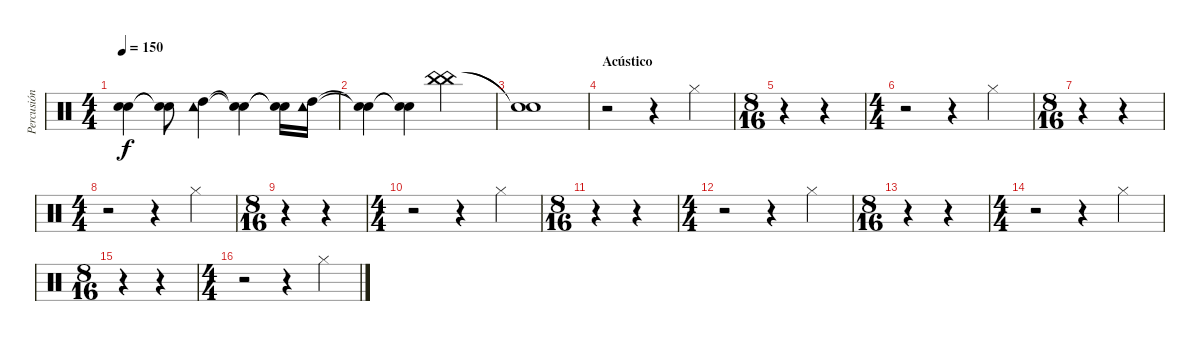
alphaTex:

\track ("Percusión" "Percusión") {instrument percussion}
\staff {score}
\articulation defaults
\ts (4 4)
\tempo 150
\clef neutral
\ks c
("Snare (hit)"{t} "Snare (hit)"{t}).4{dy f} ("Snare (hit)"{t} "Snare (hit)"{t}).8 ("High Tom (hit)" "Tambourine (hit)").4 ("Snare (hit)"{t} "Snare (hit)"{t}).4 ("Snare (hit)"{t} "Snare (hit)"{t}).16 ("High Tom (hit)" "Tambourine (hit)").16 |
("Snare (hit)"{t} "Snare (hit)"{t}).4 ("Snare (hit)"{t} "Snare (hit)"{t}).4 ("China (hit)" "China (hit)").2 |
("Snare (hit)"{t} "Snare (hit)"{t}).1 |
\section ("" "Acústico")
r.2 r.4 "Hi-Hat (closed)".4 |
\ts (8 16)
r.4 r.4 |
\ts (4 4)
r.2 r.4 "Hi-Hat (closed)".4 |
\ts (8 16)
r.4 r.4 |
\ts (4 4)
r.2 r.4 "Hi-Hat (closed)".4 |
\ts (8 16)
r.4 r.4 |
\ts (4 4)
r.2 r.4 "Hi-Hat (closed)".4 |
\ts (8 16)
r.4 r.4 |
\ts (4 4)
r.2 r.4 "Hi-Hat (closed)".4 |
\ts (8 16)
r.4 r.4 |
\ts (4 4)
r.2 r.4 "Hi-Hat (closed)".4 |
\ts (8 16)
r.4 r.4 |
\ts (4 4)
r.2 r.4 "Hi-Hat (closed)".4
